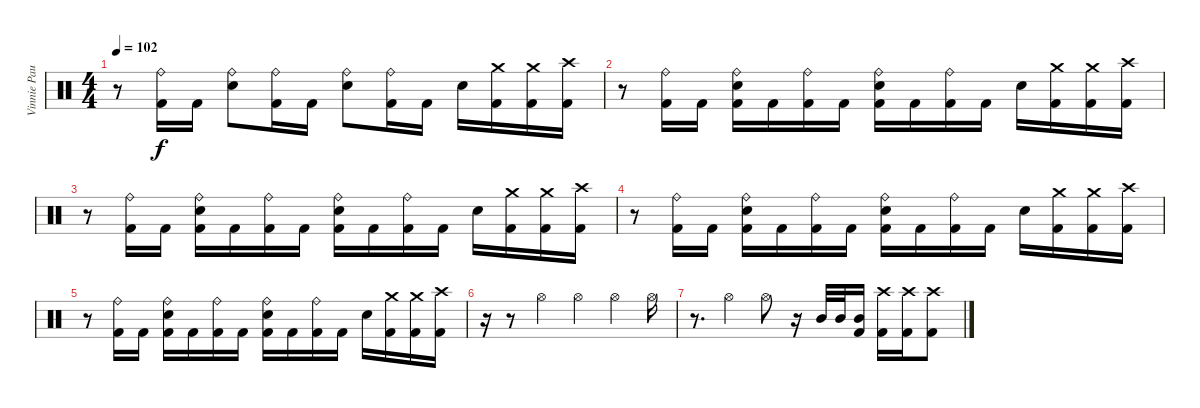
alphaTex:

\track ("Vinnie Paul" "Vinnie Pau") {instrument percussion}
\staff {score}
\articulation defaults
\ts (4 4)
\tempo 102
\clef neutral
\ks c
r.8{dy f} ("Ride (bell)" "Kick (hit) 2").16 "Kick (hit) 2".16 ("Ride (bell)" "Snare (hit) 2").8 ("Ride (bell)" "Kick (hit) 2").16 "Kick (hit) 2".16 ("Ride (bell)" "Snare (hit) 2").8 ("Ride (bell)" "Kick (hit) 2").16 "Kick (hit) 2".16 "Snare (hit) 2".16 ("Crash medium (hit)" "Kick (hit) 2").16 ("Crash medium (hit)" "Kick (hit) 2").16 ("Crash high (hit)" "Kick (hit) 2").16 |
r.8 ("Ride (bell)" "Kick (hit) 2").16 "Kick (hit) 2".16 ("Ride (bell)" "Snare (hit) 2" "Kick (hit) 2").16 "Kick (hit) 2".16 ("Ride (bell)" "Kick (hit) 2").16 "Kick (hit) 2".16 ("Ride (bell)" "Snare (hit) 2" "Kick (hit) 2").16 "Kick (hit) 2".16 ("Ride (bell)" "Kick (hit) 2").16 "Kick (hit) 2".16 "Snare (hit) 2".16 ("Crash medium (hit)" "Kick (hit) 2").16 ("Crash medium (hit)" "Kick (hit) 2").16 ("Crash high (hit)" "Kick (hit) 2").16 |
r.8 ("Ride (bell)" "Kick (hit) 2").16 "Kick (hit) 2".16 ("Ride (bell)" "Snare (hit) 2" "Kick (hit) 2").16 "Kick (hit) 2".16 ("Ride (bell)" "Kick (hit) 2").16 "Kick (hit) 2".16 ("Ride (bell)" "Snare (hit) 2" "Kick (hit) 2").16 "Kick (hit) 2".16 ("Ride (bell)" "Kick (hit) 2").16 "Kick (hit) 2".16 "Snare (hit) 2".16 ("Crash medium (hit)" "Kick (hit) 2").16 ("Crash medium (hit)" "Kick (hit) 2").16 ("Crash high (hit)" "Kick (hit) 2").16 |
r.8 ("Ride (bell)" "Kick (hit) 2").16 "Kick (hit) 2".16 ("Ride (bell)" "Snare (hit) 2" "Kick (hit) 2").16 "Kick (hit) 2".16 ("Ride (bell)" "Kick (hit) 2").16 "Kick (hit) 2".16 ("Ride (bell)" "Snare (hit) 2" "Kick (hit) 2").16 "Kick (hit) 2".16 ("Ride (bell)" "Kick (hit) 2").16 "Kick (hit) 2".16 "Snare (hit) 2".16 ("Crash medium (hit)" "Kick (hit) 2").16 ("Crash medium (hit)" "Kick (hit) 2").16 ("Crash high (hit)" "Kick (hit) 2").16 |
r.8 ("Ride (bell)" "Kick (hit) 2").16 "Kick (hit) 2".16 ("Ride (bell)" "Snare (hit) 2" "Kick (hit) 2").16 "Kick (hit) 2".16 ("Ride (bell)" "Kick (hit) 2").16 "Kick (hit) 2".16 ("Ride (bell)" "Snare (hit) 2" "Kick (hit) 2").16 "Kick (hit) 2".16 ("Ride (bell)" "Kick (hit) 2").16 "Kick (hit) 2".16 "Snare (hit) 2".16 ("Crash medium (hit)" "Kick (hit) 2").16 ("Crash medium (hit)" "Kick (hit) 2").16 ("Crash high (hit)" "Kick (hit) 2").16 |
r.16 r.8 "Hi-Hat (open)".4 "Hi-Hat (open)".4 "Hi-Hat (open)".4 "Hi-Hat (open)".16 |
r.8{d} "Hi-Hat (open)".4 "Hi-Hat (open)".8 r.16 "Mid Tom (hit)".32 "Mid Tom (hit)".32 ("Mid Tom (hit)" "Kick (hit) 2").16 ("Crash high (hit)" "Kick (hit) 2").16 ("Crash high (hit)" "Kick (hit) 2").16 ("Crash high (hit)" "Kick (hit) 2").8
